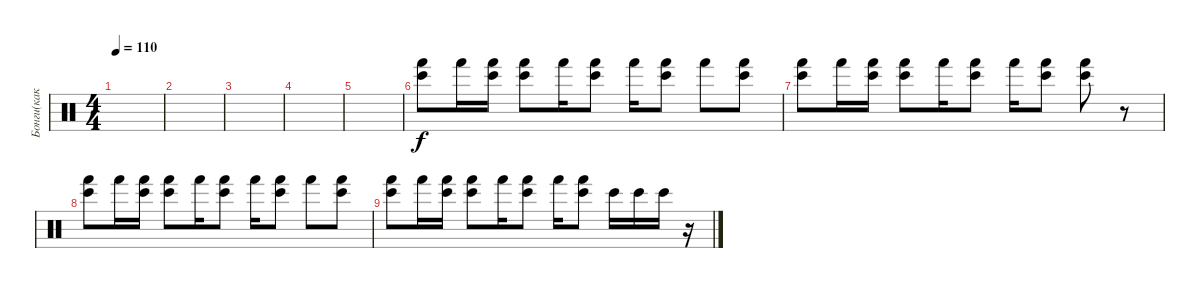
\track ("Бонги(как вариант)" "Бонги(как ") {instrument percussion}
\staff {score}
\articulation defaults
\ts (4 4)
\tempo 110
\clef neutral
\ks c
|
|
|
|
|
("Bongo High (hit)" "Hand (hit)").8 "Hand (hit)".16 ("Bongo High (hit)" "Hand (hit)").16 ("Bongo High (hit)" "Hand (hit)").8 "Hand (hit)".16 ("Bongo High (hit)" "Hand (hit)").8 "Hand (hit)".16 ("Bongo High (hit)" "Hand (hit)").8 "Hand (hit)".8 ("Bongo High (hit)" "Hand (hit)").8 |
("Bongo High (hit)" "Hand (hit)").8 "Hand (hit)".16 ("Bongo High (hit)" "Hand (hit)").16 ("Bongo High (hit)" "Hand (hit)").8 "Hand (hit)".16 ("Bongo High (hit)" "Hand (hit)").8 "Hand (hit)".16 ("Bongo High (hit)" "Hand (hit)").8 ("Bongo High (hit)" "Hand (hit)").8 r.8 |
("Bongo High (hit)" "Hand (hit)").8 "Hand (hit)".16 ("Bongo High (hit)" "Hand (hit)").16 ("Bongo High (hit)" "Hand (hit)").8 "Hand (hit)".16 ("Bongo High (hit)" "Hand (hit)").8 "Hand (hit)".16 ("Bongo High (hit)" "Hand (hit)").8 "Hand (hit)".8 ("Bongo High (hit)" "Hand (hit)").8 |
("Bongo High (hit)" "Hand (hit)").8 "Hand (hit)".16 ("Bongo High (hit)" "Hand (hit)").16 ("Bongo High (hit)" "Hand (hit)").8 "Hand (hit)".16 ("Bongo High (hit)" "Hand (hit)").8 "Hand (hit)".16 ("Bongo High (hit)" "Hand (hit)").8 "Bongo High (hit)".16 "Bongo High (hit)".16 "Bongo High (hit)".16 r.16
